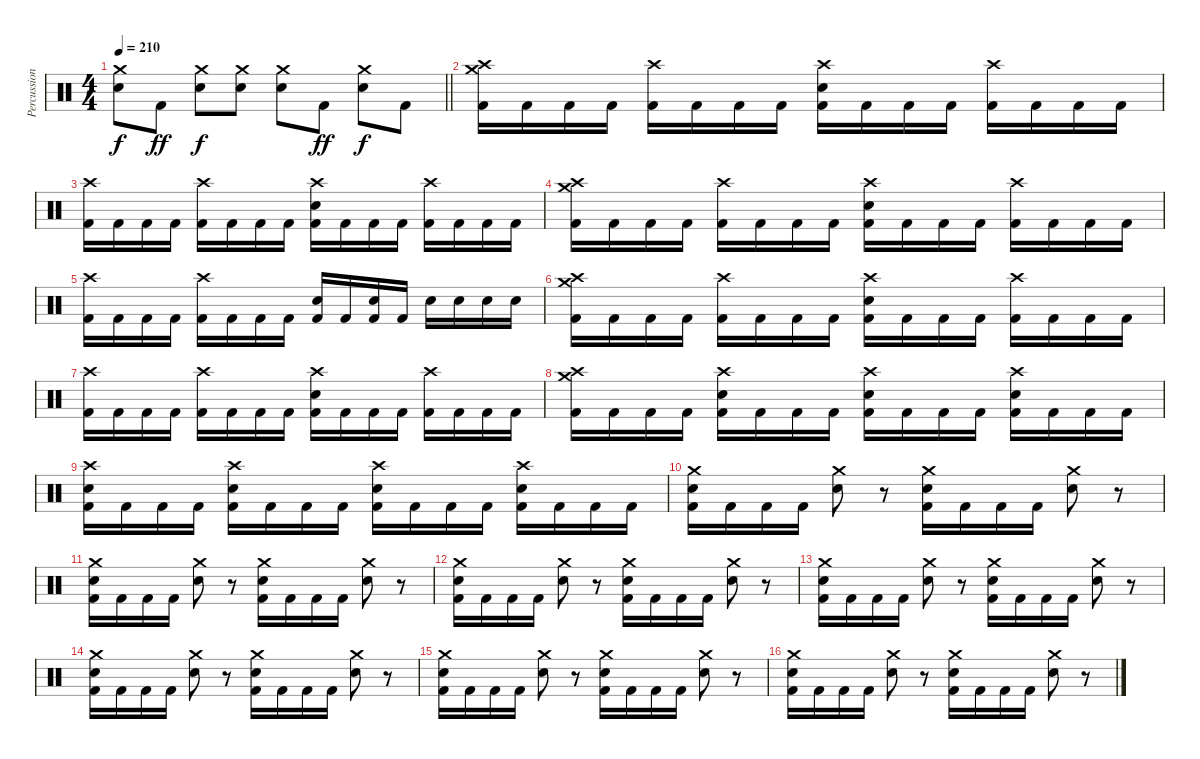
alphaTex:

\track ("Percussion" "Percussion") {instrument percussion}
\staff {score}
\articulation defaults
\ts (4 4)
\tempo 210
\clef neutral
\barLineRight lightlight
\ks c
("Crash medium (hit)" "Snare (hit) 2").8{dy f} "Kick (hit) 2".8{dy ff} ("Crash medium (hit)" "Snare (hit) 2").8{dy f} ("Crash medium (hit)" "Snare (hit) 2").8 ("Crash medium (hit)" "Snare (hit) 2").8 "Kick (hit) 2".8{dy ff} ("Crash medium (hit)" "Snare (hit) 2").8{dy f} "Kick (hit) 2".8 |
\section ("" "")
("Crash high (hit)" "Crash medium (hit)" "Kick (hit) 2").16 "Kick (hit) 2".16 "Kick (hit) 2".16 "Kick (hit) 2".16 ("Crash high (hit)" "Kick (hit) 2").16 "Kick (hit) 2".16 "Kick (hit) 2".16 "Kick (hit) 2".16 ("Crash high (hit)" "Snare (hit) 2" "Kick (hit) 2").16 "Kick (hit) 2".16 "Kick (hit) 2".16 "Kick (hit) 2".16 ("Crash high (hit)" "Kick (hit) 2").16 "Kick (hit) 2".16 "Kick (hit) 2".16 "Kick (hit) 2".16 |
("Crash high (hit)" "Kick (hit) 2").16 "Kick (hit) 2".16 "Kick (hit) 2".16 "Kick (hit) 2".16 ("Crash high (hit)" "Kick (hit) 2").16 "Kick (hit) 2".16 "Kick (hit) 2".16 "Kick (hit) 2".16 ("Crash high (hit)" "Snare (hit) 2" "Kick (hit) 2").16 "Kick (hit) 2".16 "Kick (hit) 2".16 "Kick (hit) 2".16 ("Crash high (hit)" "Kick (hit) 2").16 "Kick (hit) 2".16 "Kick (hit) 2".16 "Kick (hit) 2".16 |
("Crash high (hit)" "Crash medium (hit)" "Kick (hit) 2").16 "Kick (hit) 2".16 "Kick (hit) 2".16 "Kick (hit) 2".16 ("Crash high (hit)" "Kick (hit) 2").16 "Kick (hit) 2".16 "Kick (hit) 2".16 "Kick (hit) 2".16 ("Crash high (hit)" "Snare (hit) 2" "Kick (hit) 2").16 "Kick (hit) 2".16 "Kick (hit) 2".16 "Kick (hit) 2".16 ("Crash high (hit)" "Kick (hit) 2").16 "Kick (hit) 2".16 "Kick (hit) 2".16 "Kick (hit) 2".16 |
("Crash high (hit)" "Kick (hit) 2").16 "Kick (hit) 2".16 "Kick (hit) 2".16 "Kick (hit) 2".16 ("Crash high (hit)" "Kick (hit) 2").16 "Kick (hit) 2".16 "Kick (hit) 2".16 "Kick (hit) 2".16 ("Snare (hit) 2" "Kick (hit) 2").16 "Kick (hit) 2".16 ("Snare (hit) 2" "Kick (hit) 2").16 "Kick (hit) 2".16 "Snare (hit) 2".16 "Snare (hit) 2".16 "Snare (hit) 2".16 "Snare (hit) 2".16 |
("Crash high (hit)" "Crash medium (hit)" "Kick (hit) 2").16 "Kick (hit) 2".16 "Kick (hit) 2".16 "Kick (hit) 2".16 ("Crash high (hit)" "Kick (hit) 2").16 "Kick (hit) 2".16 "Kick (hit) 2".16 "Kick (hit) 2".16 ("Crash high (hit)" "Snare (hit) 2" "Kick (hit) 2").16 "Kick (hit) 2".16 "Kick (hit) 2".16 "Kick (hit) 2".16 ("Crash high (hit)" "Kick (hit) 2").16 "Kick (hit) 2".16 "Kick (hit) 2".16 "Kick (hit) 2".16 |
("Crash high (hit)" "Kick (hit) 2").16 "Kick (hit) 2".16 "Kick (hit) 2".16 "Kick (hit) 2".16 ("Crash high (hit)" "Kick (hit) 2").16 "Kick (hit) 2".16 "Kick (hit) 2".16 "Kick (hit) 2".16 ("Crash high (hit)" "Snare (hit) 2" "Kick (hit) 2").16 "Kick (hit) 2".16 "Kick (hit) 2".16 "Kick (hit) 2".16 ("Crash high (hit)" "Kick (hit) 2").16 "Kick (hit) 2".16 "Kick (hit) 2".16 "Kick (hit) 2".16 |
("Crash high (hit)" "Crash medium (hit)" "Kick (hit) 2").16 "Kick (hit) 2".16 "Kick (hit) 2".16 "Kick (hit) 2".16 ("Crash high (hit)" "Snare (hit) 2" "Kick (hit) 2").16 "Kick (hit) 2".16 "Kick (hit) 2".16 "Kick (hit) 2".16 ("Crash high (hit)" "Snare (hit) 2" "Kick (hit) 2").16 "Kick (hit) 2".16 "Kick (hit) 2".16 "Kick (hit) 2".16 ("Crash high (hit)" "Snare (hit) 2" "Kick (hit) 2").16 "Kick (hit) 2".16 "Kick (hit) 2".16 "Kick (hit) 2".16 |
("Crash high (hit)" "Snare (hit) 2" "Kick (hit) 2").16 "Kick (hit) 2".16 "Kick (hit) 2".16 "Kick (hit) 2".16 ("Crash high (hit)" "Snare (hit) 2" "Kick (hit) 2").16 "Kick (hit) 2".16 "Kick (hit) 2".16 "Kick (hit) 2".16 ("Crash high (hit)" "Snare (hit) 2" "Kick (hit) 2").16 "Kick (hit) 2".16 "Kick (hit) 2".16 "Kick (hit) 2".16 ("Crash high (hit)" "Snare (hit) 2" "Kick (hit) 2").16 "Kick (hit) 2".16 "Kick (hit) 2".16 "Kick (hit) 2".16 |
("Crash medium (hit)" "Snare (hit) 2" "Kick (hit) 2").16 "Kick (hit) 2".16 "Kick (hit) 2".16 "Kick (hit) 2".16 ("Crash medium (hit)" "Snare (hit) 2").8 r.8 ("Crash medium (hit)" "Snare (hit) 2" "Kick (hit) 2").16 "Kick (hit) 2".16 "Kick (hit) 2".16 "Kick (hit) 2".16 ("Crash medium (hit)" "Snare (hit) 2").8 r.8 |
("Crash medium (hit)" "Snare (hit) 2" "Kick (hit) 2").16 "Kick (hit) 2".16 "Kick (hit) 2".16 "Kick (hit) 2".16 ("Crash medium (hit)" "Snare (hit) 2").8 r.8 ("Crash medium (hit)" "Snare (hit) 2" "Kick (hit) 2").16 "Kick (hit) 2".16 "Kick (hit) 2".16 "Kick (hit) 2".16 ("Crash medium (hit)" "Snare (hit) 2").8 r.8 |
("Crash medium (hit)" "Snare (hit) 2" "Kick (hit) 2").16 "Kick (hit) 2".16 "Kick (hit) 2".16 "Kick (hit) 2".16 ("Crash medium (hit)" "Snare (hit) 2").8 r.8 ("Crash medium (hit)" "Snare (hit) 2" "Kick (hit) 2").16 "Kick (hit) 2".16 "Kick (hit) 2".16 "Kick (hit) 2".16 ("Crash medium (hit)" "Snare (hit) 2").8 r.8 |
("Crash medium (hit)" "Snare (hit) 2" "Kick (hit) 2").16 "Kick (hit) 2".16 "Kick (hit) 2".16 "Kick (hit) 2".16 ("Crash medium (hit)" "Snare (hit) 2").8 r.8 ("Crash medium (hit)" "Snare (hit) 2" "Kick (hit) 2").16 "Kick (hit) 2".16 "Kick (hit) 2".16 "Kick (hit) 2".16 ("Crash medium (hit)" "Snare (hit) 2").8 r.8 |
("Crash medium (hit)" "Snare (hit) 2" "Kick (hit) 2").16 "Kick (hit) 2".16 "Kick (hit) 2".16 "Kick (hit) 2".16 ("Crash medium (hit)" "Snare (hit) 2").8 r.8 ("Crash medium (hit)" "Snare (hit) 2" "Kick (hit) 2").16 "Kick (hit) 2".16 "Kick (hit) 2".16 "Kick (hit) 2".16 ("Crash medium (hit)" "Snare (hit) 2").8 r.8 |
("Crash medium (hit)" "Snare (hit) 2" "Kick (hit) 2").16 "Kick (hit) 2".16 "Kick (hit) 2".16 "Kick (hit) 2".16 ("Crash medium (hit)" "Snare (hit) 2").8 r.8 ("Crash medium (hit)" "Snare (hit) 2" "Kick (hit) 2").16 "Kick (hit) 2".16 "Kick (hit) 2".16 "Kick (hit) 2".16 ("Crash medium (hit)" "Snare (hit) 2").8 r.8 |
("Crash medium (hit)" "Snare (hit) 2" "Kick (hit) 2").16 "Kick (hit) 2".16 "Kick (hit) 2".16 "Kick (hit) 2".16 ("Crash medium (hit)" "Snare (hit) 2").8 r.8 ("Crash medium (hit)" "Snare (hit) 2" "Kick (hit) 2").16 "Kick (hit) 2".16 "Kick (hit) 2".16 "Kick (hit) 2".16 ("Crash medium (hit)" "Snare (hit) 2").8 r.8
